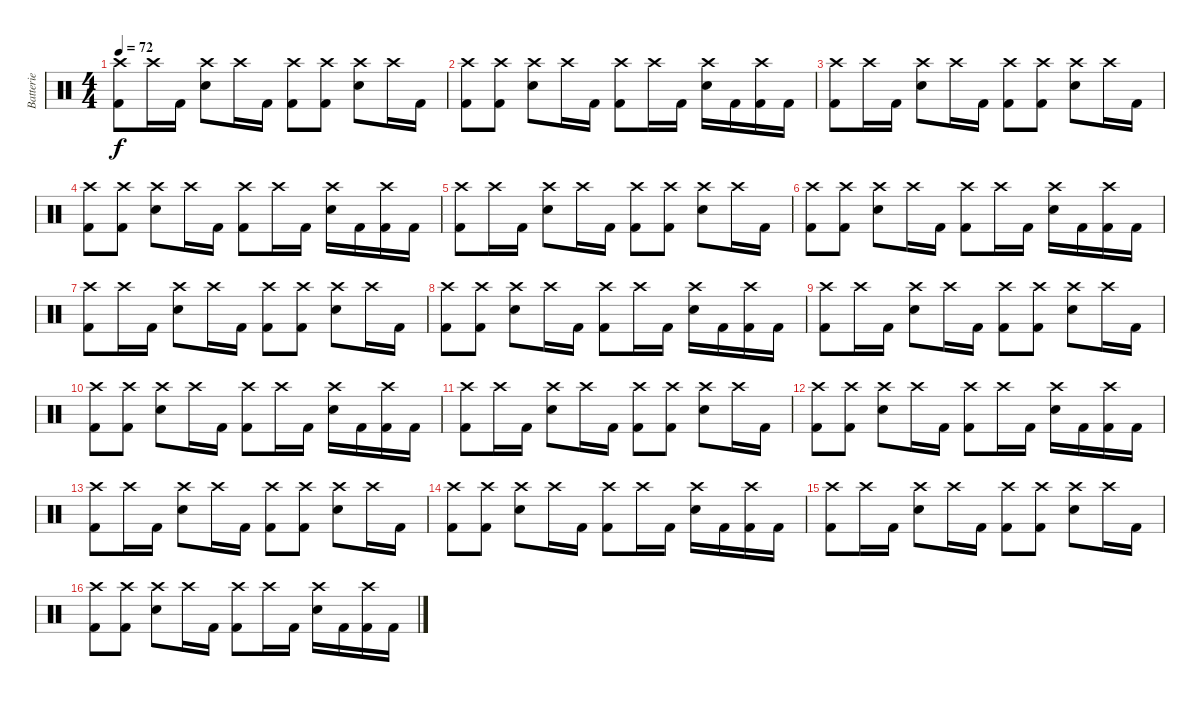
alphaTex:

\track ("Batterie" "Batterie") {instrument percussion}
\staff {score}
\articulation defaults
\ts (4 4)
\tempo 72
\clef neutral
\ks c
("Crash high (hit)" "Kick (hit) 2").8{dy f} "Crash high (hit)".16 "Kick (hit) 2".16 ("Crash high (hit)" "Snare (hit) 2").8 "Crash high (hit)".16 "Kick (hit) 2".16 ("Crash high (hit)" "Kick (hit) 2").8 ("Crash high (hit)" "Kick (hit) 2").8 ("Crash high (hit)" "Snare (hit) 2").8 "Crash high (hit)".16 "Kick (hit) 2".16 |
("Crash high (hit)" "Kick (hit) 2").8 ("Crash high (hit)" "Kick (hit) 2").8 ("Crash high (hit)" "Snare (hit) 2").8 "Crash high (hit)".16 "Kick (hit) 2".16 ("Crash high (hit)" "Kick (hit) 2").8 "Crash high (hit)".16 "Kick (hit) 2".16 ("Crash high (hit)" "Snare (hit) 2").16 "Kick (hit) 2".16 ("Crash high (hit)" "Kick (hit) 2").16 "Kick (hit) 2".16 |
("Crash high (hit)" "Kick (hit) 2").8 "Crash high (hit)".16 "Kick (hit) 2".16 ("Crash high (hit)" "Snare (hit) 2").8 "Crash high (hit)".16 "Kick (hit) 2".16 ("Crash high (hit)" "Kick (hit) 2").8 ("Crash high (hit)" "Kick (hit) 2").8 ("Crash high (hit)" "Snare (hit) 2").8 "Crash high (hit)".16 "Kick (hit) 2".16 |
("Crash high (hit)" "Kick (hit) 2").8 ("Crash high (hit)" "Kick (hit) 2").8 ("Crash high (hit)" "Snare (hit) 2").8 "Crash high (hit)".16 "Kick (hit) 2".16 ("Crash high (hit)" "Kick (hit) 2").8 "Crash high (hit)".16 "Kick (hit) 2".16 ("Crash high (hit)" "Snare (hit) 2").16 "Kick (hit) 2".16 ("Crash high (hit)" "Kick (hit) 2").16 "Kick (hit) 2".16 |
("Crash high (hit)" "Kick (hit) 2").8 "Crash high (hit)".16 "Kick (hit) 2".16 ("Crash high (hit)" "Snare (hit) 2").8 "Crash high (hit)".16 "Kick (hit) 2".16 ("Crash high (hit)" "Kick (hit) 2").8 ("Crash high (hit)" "Kick (hit) 2").8 ("Crash high (hit)" "Snare (hit) 2").8 "Crash high (hit)".16 "Kick (hit) 2".16 |
("Crash high (hit)" "Kick (hit) 2").8 ("Crash high (hit)" "Kick (hit) 2").8 ("Crash high (hit)" "Snare (hit) 2").8 "Crash high (hit)".16 "Kick (hit) 2".16 ("Crash high (hit)" "Kick (hit) 2").8 "Crash high (hit)".16 "Kick (hit) 2".16 ("Crash high (hit)" "Snare (hit) 2").16 "Kick (hit) 2".16 ("Crash high (hit)" "Kick (hit) 2").16 "Kick (hit) 2".16 |
("Crash high (hit)" "Kick (hit) 2").8 "Crash high (hit)".16 "Kick (hit) 2".16 ("Crash high (hit)" "Snare (hit) 2").8 "Crash high (hit)".16 "Kick (hit) 2".16 ("Crash high (hit)" "Kick (hit) 2").8 ("Crash high (hit)" "Kick (hit) 2").8 ("Crash high (hit)" "Snare (hit) 2").8 "Crash high (hit)".16 "Kick (hit) 2".16 |
("Crash high (hit)" "Kick (hit) 2").8 ("Crash high (hit)" "Kick (hit) 2").8 ("Crash high (hit)" "Snare (hit) 2").8 "Crash high (hit)".16 "Kick (hit) 2".16 ("Crash high (hit)" "Kick (hit) 2").8 "Crash high (hit)".16 "Kick (hit) 2".16 ("Crash high (hit)" "Snare (hit) 2").16 "Kick (hit) 2".16 ("Crash high (hit)" "Kick (hit) 2").16 "Kick (hit) 2".16 |
("Crash high (hit)" "Kick (hit) 2").8 "Crash high (hit)".16 "Kick (hit) 2".16 ("Crash high (hit)" "Snare (hit) 2").8 "Crash high (hit)".16 "Kick (hit) 2".16 ("Crash high (hit)" "Kick (hit) 2").8 ("Crash high (hit)" "Kick (hit) 2").8 ("Crash high (hit)" "Snare (hit) 2").8 "Crash high (hit)".16 "Kick (hit) 2".16 |
("Crash high (hit)" "Kick (hit) 2").8 ("Crash high (hit)" "Kick (hit) 2").8 ("Crash high (hit)" "Snare (hit) 2").8 "Crash high (hit)".16 "Kick (hit) 2".16 ("Crash high (hit)" "Kick (hit) 2").8 "Crash high (hit)".16 "Kick (hit) 2".16 ("Crash high (hit)" "Snare (hit) 2").16 "Kick (hit) 2".16 ("Crash high (hit)" "Kick (hit) 2").16 "Kick (hit) 2".16 |
("Crash high (hit)" "Kick (hit) 2").8 "Crash high (hit)".16 "Kick (hit) 2".16 ("Crash high (hit)" "Snare (hit) 2").8 "Crash high (hit)".16 "Kick (hit) 2".16 ("Crash high (hit)" "Kick (hit) 2").8 ("Crash high (hit)" "Kick (hit) 2").8 ("Crash high (hit)" "Snare (hit) 2").8 "Crash high (hit)".16 "Kick (hit) 2".16 |
("Crash high (hit)" "Kick (hit) 2").8 ("Crash high (hit)" "Kick (hit) 2").8 ("Crash high (hit)" "Snare (hit) 2").8 "Crash high (hit)".16 "Kick (hit) 2".16 ("Crash high (hit)" "Kick (hit) 2").8 "Crash high (hit)".16 "Kick (hit) 2".16 ("Crash high (hit)" "Snare (hit) 2").16 "Kick (hit) 2".16 ("Crash high (hit)" "Kick (hit) 2").16 "Kick (hit) 2".16 |
("Crash high (hit)" "Kick (hit) 2").8 "Crash high (hit)".16 "Kick (hit) 2".16 ("Crash high (hit)" "Snare (hit) 2").8 "Crash high (hit)".16 "Kick (hit) 2".16 ("Crash high (hit)" "Kick (hit) 2").8 ("Crash high (hit)" "Kick (hit) 2").8 ("Crash high (hit)" "Snare (hit) 2").8 "Crash high (hit)".16 "Kick (hit) 2".16 |
("Crash high (hit)" "Kick (hit) 2").8 ("Crash high (hit)" "Kick (hit) 2").8 ("Crash high (hit)" "Snare (hit) 2").8 "Crash high (hit)".16 "Kick (hit) 2".16 ("Crash high (hit)" "Kick (hit) 2").8 "Crash high (hit)".16 "Kick (hit) 2".16 ("Crash high (hit)" "Snare (hit) 2").16 "Kick (hit) 2".16 ("Crash high (hit)" "Kick (hit) 2").16 "Kick (hit) 2".16 |
("Crash high (hit)" "Kick (hit) 2").8 "Crash high (hit)".16 "Kick (hit) 2".16 ("Crash high (hit)" "Snare (hit) 2").8 "Crash high (hit)".16 "Kick (hit) 2".16 ("Crash high (hit)" "Kick (hit) 2").8 ("Crash high (hit)" "Kick (hit) 2").8 ("Crash high (hit)" "Snare (hit) 2").8 "Crash high (hit)".16 "Kick (hit) 2".16 |
("Crash high (hit)" "Kick (hit) 2").8 ("Crash high (hit)" "Kick (hit) 2").8 ("Crash high (hit)" "Snare (hit) 2").8 "Crash high (hit)".16 "Kick (hit) 2".16 ("Crash high (hit)" "Kick (hit) 2").8 "Crash high (hit)".16 "Kick (hit) 2".16 ("Crash high (hit)" "Snare (hit) 2").16 "Kick (hit) 2".16 ("Crash high (hit)" "Kick (hit) 2").16 "Kick (hit) 2".16
